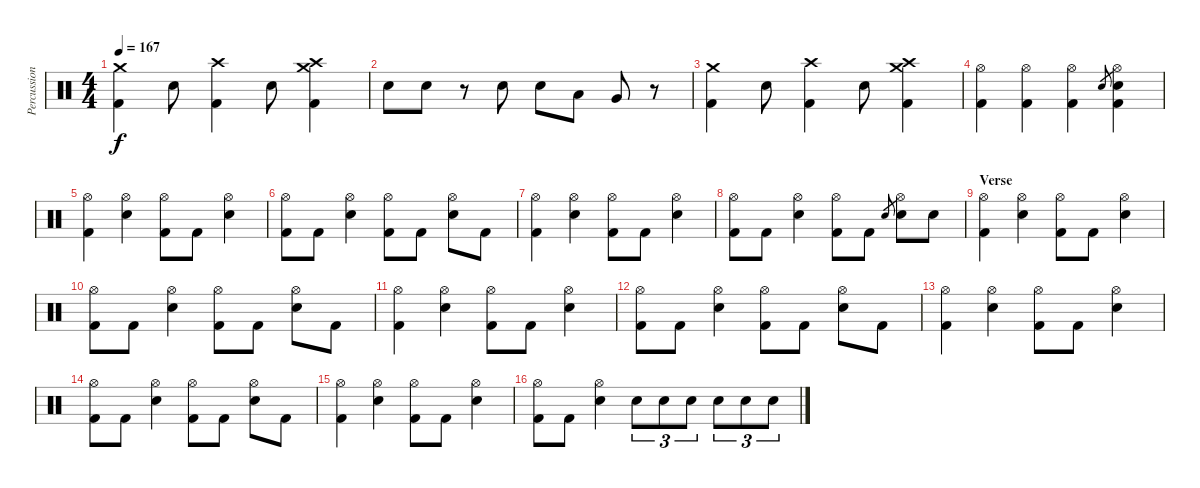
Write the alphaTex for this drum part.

\track ("Percussion" "Percussion") {instrument percussion}
\staff {score}
\articulation defaults
\ts (4 4)
\tempo 167
\clef neutral
\ks c
("Crash medium (hit)" "Kick (hit) 2").4{dy f} "Electric Snare (hit)".8 ("Crash high (hit)" "Kick (hit) 2").4 "Electric Snare (hit)".8 ("Crash medium (hit)" "Crash high (hit)" "Kick (hit) 2").4 |
"Electric Snare (hit)".8 "Electric Snare (hit)".8 r.8 "Electric Snare (hit)".8 "Electric Snare (hit)".8 "Low Tom (hit)".8 "Very Low Tom (hit)".8 r.8 |
("Crash medium (hit)" "Kick (hit) 2").4 "Electric Snare (hit)".8 ("Crash high (hit)" "Kick (hit) 2").4 "Electric Snare (hit)".8 ("Crash medium (hit)" "Crash high (hit)" "Kick (hit) 2").4 |
("Hi-Hat (open)" "Kick (hit) 2").4 ("Hi-Hat (open)" "Kick (hit) 2").4 ("Hi-Hat (open)" "Kick (hit) 2").4 "Electric Snare (hit)".8{gr} ("Hi-Hat (open)" "Electric Snare (hit)" "Kick (hit) 2").4 |
("Hi-Hat (open)" "Kick (hit) 2").4 ("Hi-Hat (open)" "Electric Snare (hit)").4 ("Hi-Hat (open)" "Kick (hit) 2").8 "Kick (hit) 2".8 ("Hi-Hat (open)" "Electric Snare (hit)").4 |
("Hi-Hat (open)" "Kick (hit) 2").8 "Kick (hit) 2".8 ("Hi-Hat (open)" "Electric Snare (hit)").4 ("Hi-Hat (open)" "Kick (hit) 2").8 "Kick (hit) 2".8 ("Hi-Hat (open)" "Electric Snare (hit)").8 "Kick (hit) 2".8 |
("Hi-Hat (open)" "Kick (hit) 2").4 ("Hi-Hat (open)" "Electric Snare (hit)").4 ("Hi-Hat (open)" "Kick (hit) 2").8 "Kick (hit) 2".8 ("Hi-Hat (open)" "Electric Snare (hit)").4 |
("Hi-Hat (open)" "Kick (hit) 2").8 "Kick (hit) 2".8 ("Hi-Hat (open)" "Electric Snare (hit)").4 ("Hi-Hat (open)" "Kick (hit) 2").8 "Kick (hit) 2".8 "Electric Snare (hit)".8{gr} ("Hi-Hat (open)" "Electric Snare (hit)").8 "Electric Snare (hit)".8 |
\section ("" "Verse")
("Hi-Hat (open)" "Kick (hit) 2").4 ("Hi-Hat (open)" "Electric Snare (hit)").4 ("Hi-Hat (open)" "Kick (hit) 2").8 "Kick (hit) 2".8 ("Hi-Hat (open)" "Electric Snare (hit)").4 |
("Hi-Hat (open)" "Kick (hit) 2").8 "Kick (hit) 2".8 ("Hi-Hat (open)" "Electric Snare (hit)").4 ("Hi-Hat (open)" "Kick (hit) 2").8 "Kick (hit) 2".8 ("Hi-Hat (open)" "Electric Snare (hit)").8 "Kick (hit) 2".8 |
("Hi-Hat (open)" "Kick (hit) 2").4 ("Hi-Hat (open)" "Electric Snare (hit)").4 ("Hi-Hat (open)" "Kick (hit) 2").8 "Kick (hit) 2".8 ("Hi-Hat (open)" "Electric Snare (hit)").4 |
("Hi-Hat (open)" "Kick (hit) 2").8 "Kick (hit) 2".8 ("Hi-Hat (open)" "Electric Snare (hit)").4 ("Hi-Hat (open)" "Kick (hit) 2").8 "Kick (hit) 2".8 ("Hi-Hat (open)" "Electric Snare (hit)").8 "Kick (hit) 2".8 |
("Hi-Hat (open)" "Kick (hit) 2").4 ("Hi-Hat (open)" "Electric Snare (hit)").4 ("Hi-Hat (open)" "Kick (hit) 2").8 "Kick (hit) 2".8 ("Hi-Hat (open)" "Electric Snare (hit)").4 |
("Hi-Hat (open)" "Kick (hit) 2").8 "Kick (hit) 2".8 ("Hi-Hat (open)" "Electric Snare (hit)").4 ("Hi-Hat (open)" "Kick (hit) 2").8 "Kick (hit) 2".8 ("Hi-Hat (open)" "Electric Snare (hit)").8 "Kick (hit) 2".8 |
("Hi-Hat (open)" "Kick (hit) 2").4 ("Hi-Hat (open)" "Electric Snare (hit)").4 ("Hi-Hat (open)" "Kick (hit) 2").8 "Kick (hit) 2".8 ("Hi-Hat (open)" "Electric Snare (hit)").4 |
("Hi-Hat (open)" "Kick (hit) 2").8 "Kick (hit) 2".8 ("Hi-Hat (open)" "Electric Snare (hit)").4 "Electric Snare (hit)".8{tu (3 2)} "Electric Snare (hit)".8{tu (3 2)} "Electric Snare (hit)".8{tu (3 2)} "Electric Snare (hit)".8{tu (3 2)} "Electric Snare (hit)".8{tu (3 2)} "Electric Snare (hit)".8{tu (3 2)}
